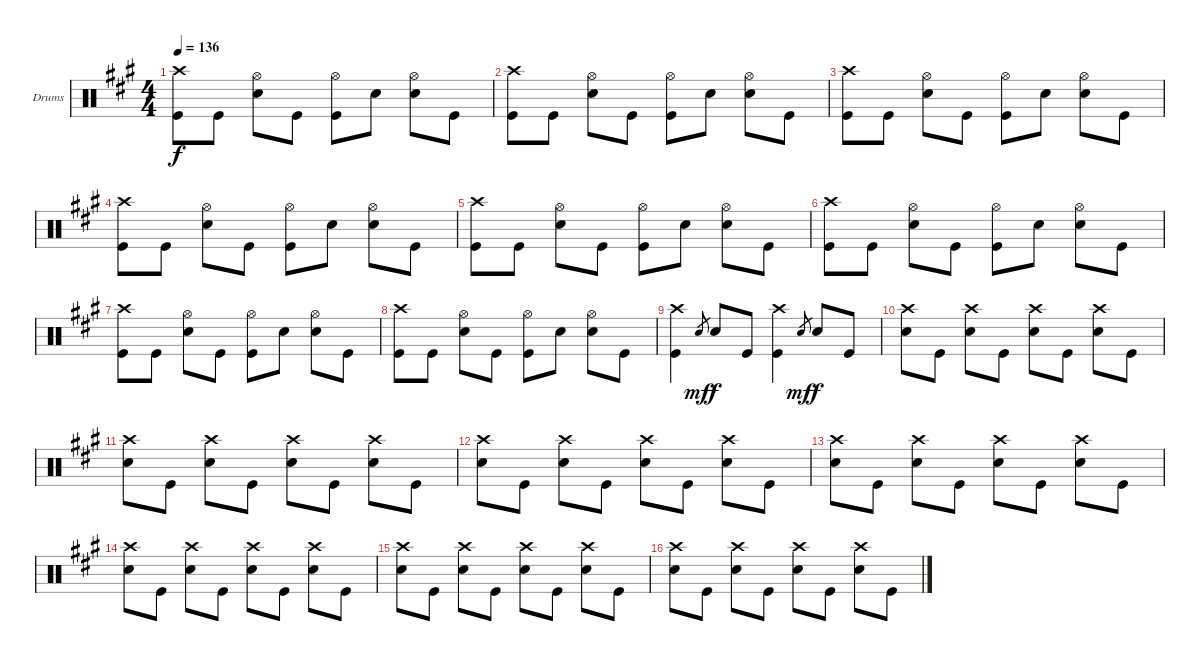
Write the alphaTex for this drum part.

\defaultSystemsLayout 4
\bracketExtendMode groupsimilarinstruments
\firstSystemTrackNameOrientation horizontal
\otherSystemsTrackNameOrientation horizontal
\track ("Drumkit" "Drums") {instrument percussion}
\staff {score}
\articulation defaults
\ts (4 4)
\tempo 136
\clef neutral
\scale
1.05801
\ks a
("Crash high (hit)" "Kick (hit)").8{dy f} "Kick (hit)".8 ("Hi-Hat (open)" "Snare (hit) 2").8 "Kick (hit)".8 ("Hi-Hat (open)" "Kick (hit)").8 "Snare (hit) 2".8 ("Hi-Hat (open)" "Snare (hit) 2").8 "Kick (hit)".8 |
\scale
0.941992 ("Crash high (hit)" "Kick (hit)").8 "Kick (hit)".8 ("Hi-Hat (open)" "Snare (hit) 2").8 "Kick (hit)".8 ("Hi-Hat (open)" "Kick (hit)").8 "Snare (hit) 2".8 ("Hi-Hat (open)" "Snare (hit) 2").8 "Kick (hit)".8 |
\scale
1.05801 ("Crash high (hit)" "Kick (hit)").8 "Kick (hit)".8 ("Hi-Hat (open)" "Snare (hit) 2").8 "Kick (hit)".8 ("Hi-Hat (open)" "Kick (hit)").8 "Snare (hit) 2".8 ("Hi-Hat (open)" "Snare (hit) 2").8 "Kick (hit)".8 |
\scale
0.941992 ("Crash high (hit)" "Kick (hit)").8 "Kick (hit)".8 ("Hi-Hat (open)" "Snare (hit) 2").8 "Kick (hit)".8 ("Hi-Hat (open)" "Kick (hit)").8 "Snare (hit) 2".8 ("Hi-Hat (open)" "Snare (hit) 2").8 "Kick (hit)".8 |
\scale
1.05801 ("Crash high (hit)" "Kick (hit)").8 "Kick (hit)".8 ("Hi-Hat (open)" "Snare (hit) 2").8 "Kick (hit)".8 ("Hi-Hat (open)" "Kick (hit)").8 "Snare (hit) 2".8 ("Hi-Hat (open)" "Snare (hit) 2").8 "Kick (hit)".8 |
\scale
0.941992 ("Crash high (hit)" "Kick (hit)").8 "Kick (hit)".8 ("Hi-Hat (open)" "Snare (hit) 2").8 "Kick (hit)".8 ("Hi-Hat (open)" "Kick (hit)").8 "Snare (hit) 2".8 ("Hi-Hat (open)" "Snare (hit) 2").8 "Kick (hit)".8 |
\scale
1.05801 ("Crash high (hit)" "Kick (hit)").8 "Kick (hit)".8 ("Hi-Hat (open)" "Snare (hit) 2").8 "Kick (hit)".8 ("Hi-Hat (open)" "Kick (hit)").8 "Snare (hit) 2".8 ("Hi-Hat (open)" "Snare (hit) 2").8 "Kick (hit)".8 |
\scale
0.941992 ("Crash high (hit)" "Kick (hit)").8 "Kick (hit)".8 ("Hi-Hat (open)" "Snare (hit) 2").8 "Kick (hit)".8 ("Hi-Hat (open)" "Kick (hit)").8 "Snare (hit) 2".8 ("Hi-Hat (open)" "Snare (hit) 2").8 "Kick (hit)".8 |
\scale
1.05801 ("Kick (hit)" "Crash high (hit)").4 "Snare (hit) 2".8{gr dy mf} "Snare (hit) 2".8{dy f} "Kick (hit)".8 ("Kick (hit)" "Crash high (hit)").4 "Snare (hit) 2".8{gr dy mf} "Snare (hit) 2".8{dy f} "Kick (hit)".8 |
\scale
0.941992 ("Snare (hit) 2" "Crash high (hit)").8 "Kick (hit)".8 ("Snare (hit) 2" "Crash high (hit)").8 "Kick (hit)".8 ("Snare (hit) 2" "Crash high (hit)").8 "Kick (hit)".8 ("Snare (hit) 2" "Crash high (hit)").8 "Kick (hit)".8 |
\scale
1.05801 ("Snare (hit) 2" "Crash high (hit)").8 "Kick (hit)".8 ("Snare (hit) 2" "Crash high (hit)").8 "Kick (hit)".8 ("Snare (hit) 2" "Crash high (hit)").8 "Kick (hit)".8 ("Snare (hit) 2" "Crash high (hit)").8 "Kick (hit)".8 |
\scale
0.941992 ("Snare (hit) 2" "Crash high (hit)").8 "Kick (hit)".8 ("Snare (hit) 2" "Crash high (hit)").8 "Kick (hit)".8 ("Snare (hit) 2" "Crash high (hit)").8 "Kick (hit)".8 ("Snare (hit) 2" "Crash high (hit)").8 "Kick (hit)".8 |
\scale
1.05801 ("Snare (hit) 2" "Crash high (hit)").8 "Kick (hit)".8 ("Snare (hit) 2" "Crash high (hit)").8 "Kick (hit)".8 ("Snare (hit) 2" "Crash high (hit)").8 "Kick (hit)".8 ("Snare (hit) 2" "Crash high (hit)").8 "Kick (hit)".8 |
\scale
0.941992 ("Snare (hit) 2" "Crash high (hit)").8 "Kick (hit)".8 ("Snare (hit) 2" "Crash high (hit)").8 "Kick (hit)".8 ("Snare (hit) 2" "Crash high (hit)").8 "Kick (hit)".8 ("Snare (hit) 2" "Crash high (hit)").8 "Kick (hit)".8 |
\scale
1.05801 ("Snare (hit) 2" "Crash high (hit)").8 "Kick (hit)".8 ("Snare (hit) 2" "Crash high (hit)").8 "Kick (hit)".8 ("Snare (hit) 2" "Crash high (hit)").8 "Kick (hit)".8 ("Snare (hit) 2" "Crash high (hit)").8 "Kick (hit)".8 |
\scale
0.941992 ("Snare (hit) 2" "Crash high (hit)").8 "Kick (hit)".8 ("Snare (hit) 2" "Crash high (hit)").8 "Kick (hit)".8 ("Snare (hit) 2" "Crash high (hit)").8 "Kick (hit)".8 ("Snare (hit) 2" "Crash high (hit)").8 "Kick (hit)".8
